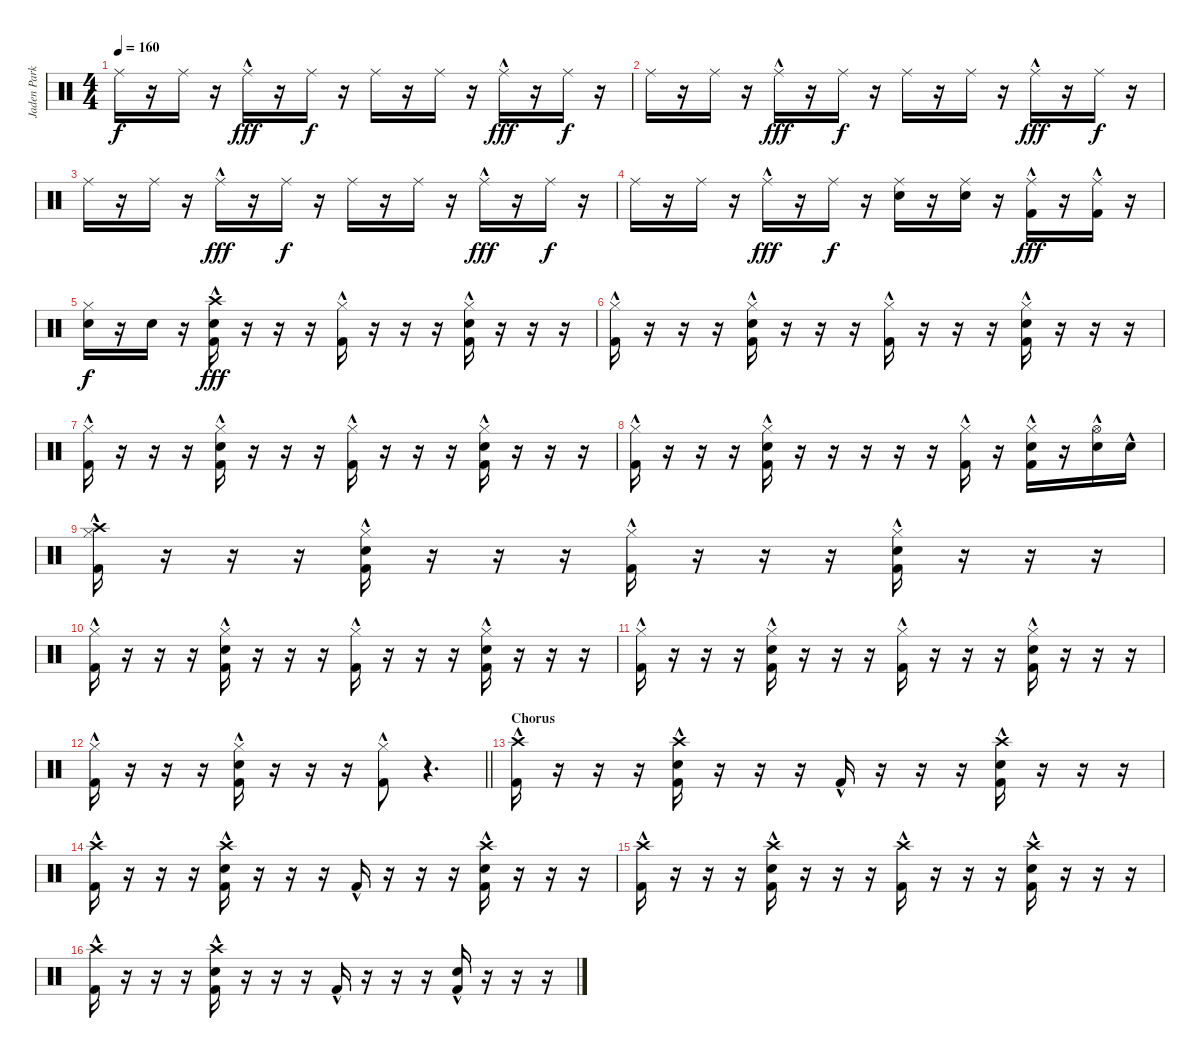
\track ("Jaden Parkes" "Jaden Park") {instrument percussion}
\staff {score}
\articulation defaults
\ts (4 4)
\tempo 160
\clef neutral
\ks c "Ride (middle)".16{dy f}
r.16 "Ride (middle)".16 r.16 "Ride (middle)"{hac}.16{dy fff} r.16 "Ride (middle)".16{dy f} r.16 "Ride (middle)".16 r.16 "Ride (middle)".16 r.16 "Ride (middle)"{hac}.16{dy fff} r.16 "Ride (middle)".16{dy f} r.16 |
"Ride (middle)".16 r.16 "Ride (middle)".16 r.16 "Ride (middle)"{hac}.16{dy fff} r.16 "Ride (middle)".16{dy f} r.16 "Ride (middle)".16 r.16 "Ride (middle)".16 r.16 "Ride (middle)"{hac}.16{dy fff} r.16 "Ride (middle)".16{dy f} r.16 |
"Ride (middle)".16 r.16 "Ride (middle)".16 r.16 "Ride (middle)"{hac}.16{dy fff} r.16 "Ride (middle)".16{dy f} r.16 "Ride (middle)".16 r.16 "Ride (middle)".16 r.16 "Ride (middle)"{hac}.16{dy fff} r.16 "Ride (middle)".16{dy f} r.16 |
"Ride (middle)".16{volume 14} r.16 "Ride (middle)".16 r.16 "Ride (middle)"{hac}.16{dy fff} r.16 "Ride (middle)".16{dy f} r.16 ("Ride (middle)" "Electric Snare (hit)").16 r.16 ("Ride (middle)" "Electric Snare (hit)").16 r.16 ("Ride (middle)"{hac} "Kick (hit) 2"{hac}).16{dy fff} r.16 ("Ride (middle)" "Kick (hit) 2"{hac}).16 r.16 |
("Hi-Hat (closed)" "Electric Snare (hit)").16{dy f} r.16 "Electric Snare (hit)".16 r.16 ("Crash high (hit)"{hac} "Electric Snare (hit)" "Kick (hit) 2"{hac}).16{dy fff} r.16 r.16 r.16 ("Hi-Hat (closed)" "Kick (hit) 2"{hac}).16 r.16 r.16 r.16 ("Hi-Hat (closed)"{hac} "Electric Snare (hit)" "Kick (hit) 2"{hac}).16 r.16 r.16 r.16 |
("Hi-Hat (closed)" "Kick (hit) 2"{hac}).16 r.16 r.16 r.16 ("Hi-Hat (closed)"{hac} "Electric Snare (hit)" "Kick (hit) 2"{hac}).16 r.16 r.16 r.16 ("Hi-Hat (closed)" "Kick (hit) 2"{hac}).16 r.16 r.16 r.16 ("Hi-Hat (closed)"{hac} "Electric Snare (hit)" "Kick (hit) 2"{hac}).16 r.16 r.16 r.16 |
("Hi-Hat (closed)" "Kick (hit) 2"{hac}).16 r.16 r.16 r.16 ("Hi-Hat (closed)"{hac} "Electric Snare (hit)" "Kick (hit) 2"{hac}).16 r.16 r.16 r.16 ("Hi-Hat (closed)" "Kick (hit) 2"{hac}).16 r.16 r.16 r.16 ("Hi-Hat (closed)"{hac} "Electric Snare (hit)" "Kick (hit) 2"{hac}).16 r.16 r.16 r.16 |
("Hi-Hat (closed)" "Kick (hit) 2"{hac}).16 r.16 r.16 r.16 ("Hi-Hat (closed)"{hac} "Electric Snare (hit)" "Kick (hit) 2"{hac}).16 r.16 r.16 r.16 r.16 r.16 ("Hi-Hat (closed)" "Kick (hit) 2"{hac}).16 r.16 ("Hi-Hat (closed)"{hac} "Electric Snare (hit)"{hac} "Kick (hit) 2"{hac}).16 r.16 ("Hi-Hat (open)" "Electric Snare (hit)"{hac}).16 "Electric Snare (hit)"{hac}.16 |
("Hi-Hat (closed)" "Crash high (hit)"{hac} "Kick (hit) 2"{hac}).16 r.16 r.16 r.16 ("Hi-Hat (closed)"{hac} "Electric Snare (hit)" "Kick (hit) 2"{hac}).16 r.16 r.16 r.16 ("Hi-Hat (closed)" "Kick (hit) 2"{hac}).16 r.16 r.16 r.16 ("Hi-Hat (closed)"{hac} "Electric Snare (hit)" "Kick (hit) 2"{hac}).16 r.16 r.16 r.16 |
("Hi-Hat (closed)" "Kick (hit) 2"{hac}).16 r.16 r.16 r.16 ("Hi-Hat (closed)"{hac} "Electric Snare (hit)" "Kick (hit) 2"{hac}).16 r.16 r.16 r.16 ("Hi-Hat (closed)" "Kick (hit) 2"{hac}).16 r.16 r.16 r.16 ("Hi-Hat (closed)"{hac} "Electric Snare (hit)" "Kick (hit) 2"{hac}).16 r.16 r.16 r.16 |
("Hi-Hat (closed)" "Kick (hit) 2"{hac}).16 r.16 r.16 r.16 ("Hi-Hat (closed)"{hac} "Electric Snare (hit)" "Kick (hit) 2"{hac}).16 r.16 r.16 r.16 ("Hi-Hat (closed)" "Kick (hit) 2"{hac}).16 r.16 r.16 r.16 ("Hi-Hat (closed)"{hac} "Electric Snare (hit)" "Kick (hit) 2"{hac}).16 r.16 r.16 r.16 |
\barLineRight lightlight
("Hi-Hat (closed)" "Kick (hit) 2"{hac}).16 r.16 r.16 r.16 ("Hi-Hat (closed)"{hac} "Electric Snare (hit)" "Kick (hit) 2"{hac}).16 r.16 r.16 r.16 ("Hi-Hat (closed)" "Kick (hit) 2"{hac}).8{volume 16} r.4{d} |
\section ("" "Chorus")
("Crash high (hit)" "Kick (hit) 2"{hac}).16 r.16 r.16 r.16 ("Crash high (hit)"{hac} "Electric Snare (hit)" "Kick (hit) 2"{hac}).16 r.16 r.16 r.16 "Kick (hit) 2"{hac}.16 r.16 r.16 r.16 ("Crash high (hit)"{hac} "Electric Snare (hit)" "Kick (hit) 2"{hac}).16 r.16 r.16 r.16 |
("Crash high (hit)" "Kick (hit) 2"{hac}).16 r.16 r.16 r.16 ("Crash high (hit)"{hac} "Electric Snare (hit)" "Kick (hit) 2"{hac}).16 r.16 r.16 r.16 "Kick (hit) 2"{hac}.16 r.16 r.16 r.16 ("Crash high (hit)"{hac} "Electric Snare (hit)" "Kick (hit) 2"{hac}).16 r.16 r.16 r.16 |
("Crash high (hit)" "Kick (hit) 2"{hac}).16 r.16 r.16 r.16 ("Crash high (hit)"{hac} "Electric Snare (hit)" "Kick (hit) 2"{hac}).16 r.16 r.16 r.16 ("Crash high (hit)" "Kick (hit) 2"{hac}).16 r.16 r.16 r.16 ("Crash high (hit)"{hac} "Electric Snare (hit)" "Kick (hit) 2"{hac}).16 r.16 r.16 r.16 |
("Crash high (hit)" "Kick (hit) 2"{hac}).16 r.16 r.16 r.16 ("Crash high (hit)"{hac} "Electric Snare (hit)" "Kick (hit) 2"{hac}).16 r.16 r.16 r.16 "Kick (hit) 2"{hac}.16 r.16 r.16 r.16 ("Electric Snare (hit)" "Kick (hit) 2"{hac}).16 r.16 r.16 r.16
